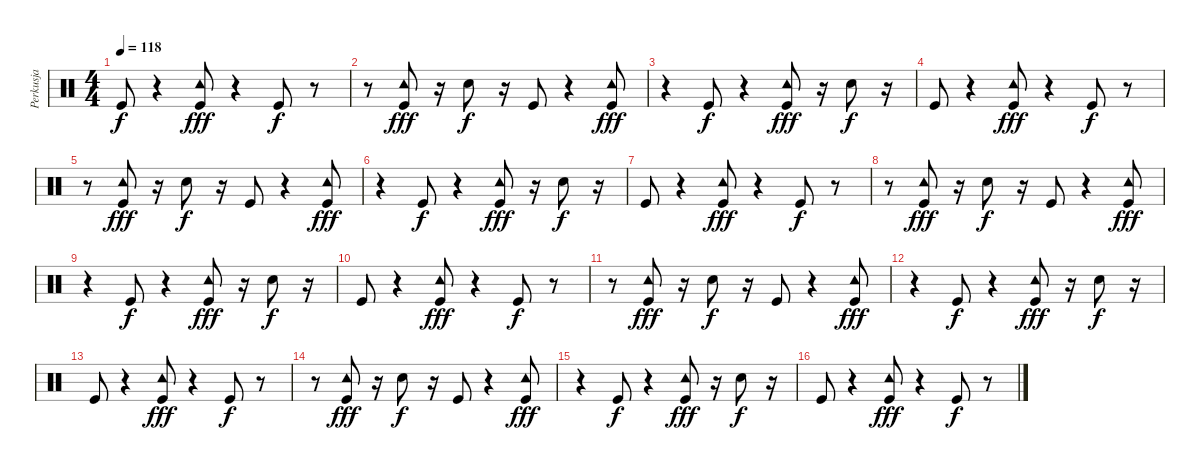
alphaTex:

\track ("Perkusja" "Perkusja") {instrument percussion}
\staff {score}
\articulation defaults
\ts (4 4)
\tempo 118
\clef neutral
\ks c "Kick (hit)".8{dy f}
r.4 ("Kick (hit)" "Tambourine (hit)").8{dy fff} r.4 "Kick (hit)".8{dy f} r.8 |
r.8 ("Kick (hit)" "Tambourine (hit)").8{dy fff} r.16 "Electric Snare (hit)".8{dy f} r.16 "Kick (hit)".8 r.4 ("Kick (hit)" "Tambourine (hit)").8{dy fff} |
r.4 "Kick (hit)".8{dy f} r.4 ("Kick (hit)" "Tambourine (hit)").8{dy fff} r.16 "Electric Snare (hit)".8{dy f} r.16 |
"Kick (hit)".8 r.4 ("Kick (hit)" "Tambourine (hit)").8{dy fff} r.4 "Kick (hit)".8{dy f} r.8 |
r.8 ("Kick (hit)" "Tambourine (hit)").8{dy fff} r.16 "Electric Snare (hit)".8{dy f} r.16 "Kick (hit)".8 r.4 ("Kick (hit)" "Tambourine (hit)").8{dy fff} |
r.4 "Kick (hit)".8{dy f} r.4 ("Kick (hit)" "Tambourine (hit)").8{dy fff} r.16 "Electric Snare (hit)".8{dy f} r.16 |
"Kick (hit)".8 r.4 ("Kick (hit)" "Tambourine (hit)").8{dy fff} r.4 "Kick (hit)".8{dy f} r.8 |
r.8 ("Kick (hit)" "Tambourine (hit)").8{dy fff} r.16 "Electric Snare (hit)".8{dy f} r.16 "Kick (hit)".8 r.4 ("Kick (hit)" "Tambourine (hit)").8{dy fff} |
r.4 "Kick (hit)".8{dy f} r.4 ("Kick (hit)" "Tambourine (hit)").8{dy fff} r.16 "Electric Snare (hit)".8{dy f} r.16 |
"Kick (hit)".8 r.4 ("Kick (hit)" "Tambourine (hit)").8{dy fff} r.4 "Kick (hit)".8{dy f} r.8 |
r.8 ("Kick (hit)" "Tambourine (hit)").8{dy fff} r.16 "Electric Snare (hit)".8{dy f} r.16 "Kick (hit)".8 r.4 ("Kick (hit)" "Tambourine (hit)").8{dy fff} |
r.4 "Kick (hit)".8{dy f} r.4 ("Kick (hit)" "Tambourine (hit)").8{dy fff} r.16 "Electric Snare (hit)".8{dy f} r.16 |
"Kick (hit)".8 r.4 ("Kick (hit)" "Tambourine (hit)").8{dy fff} r.4 "Kick (hit)".8{dy f} r.8 |
r.8 ("Kick (hit)" "Tambourine (hit)").8{dy fff} r.16 "Electric Snare (hit)".8{dy f} r.16 "Kick (hit)".8 r.4 ("Kick (hit)" "Tambourine (hit)").8{dy fff} |
r.4 "Kick (hit)".8{dy f} r.4 ("Kick (hit)" "Tambourine (hit)").8{dy fff} r.16 "Electric Snare (hit)".8{dy f} r.16 |
"Kick (hit)".8 r.4 ("Kick (hit)" "Tambourine (hit)").8{dy fff} r.4 "Kick (hit)".8{dy f} r.8
